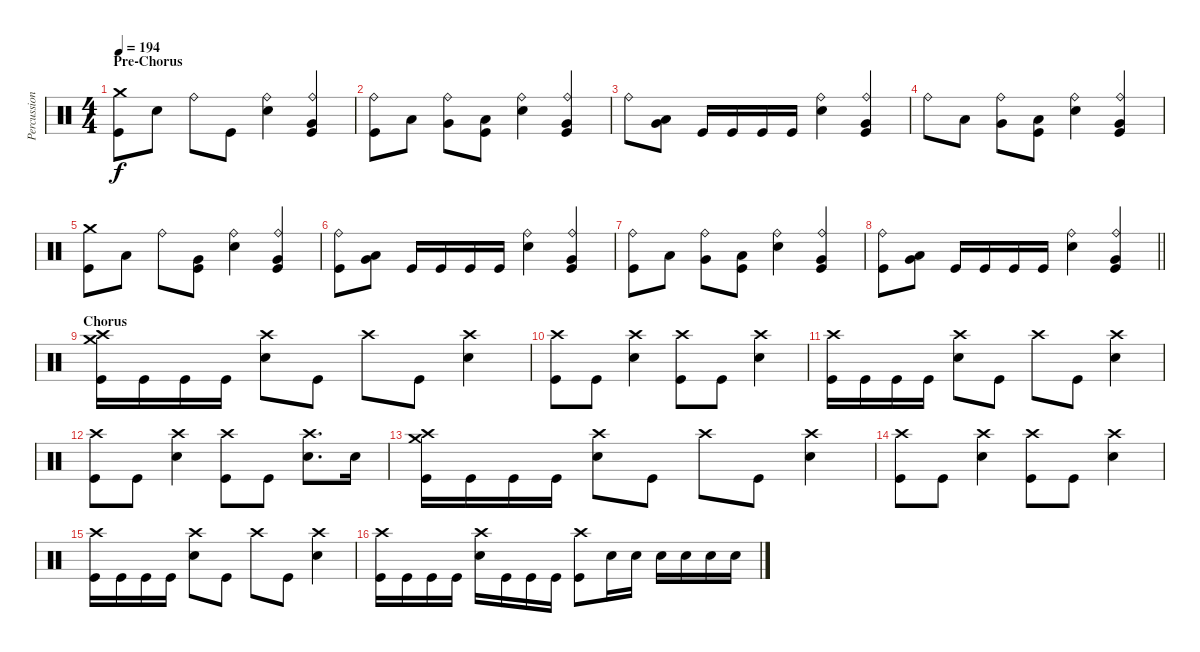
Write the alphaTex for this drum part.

\track ("Percussion" "Percussion") {instrument percussion}
\staff {score}
\articulation defaults
\ts (4 4)
\section ("" "Pre-Chorus")
\tempo 194
\clef neutral
\ks c
("Crash medium (hit)" "Kick (hit)").8{dy f} "Electric Snare (hit)".8 "Ride (bell)".8 "Kick (hit)".8 ("Ride (bell)" "Electric Snare (hit)").4 ("Ride (bell)" "Very Low Tom (hit)" "Kick (hit)").4 |
("Ride (bell)" "Kick (hit)").8 "Low Tom (hit)".8 ("Ride (bell)" "Very Low Tom (hit)").8 ("Low Floor Tom (hit)" "Kick (hit)").8 ("Ride (bell)" "Electric Snare (hit)").4 ("Ride (bell)" "Very Low Tom (hit)" "Kick (hit)").4 |
"Ride (bell)".8 ("Low Tom (hit)" "Very Low Tom (hit)").8 "Kick (hit)".16 "Kick (hit)".16 "Kick (hit)".16 "Kick (hit)".16 ("Ride (bell)" "Electric Snare (hit)").4 ("Ride (bell)" "Very Low Tom (hit)" "Kick (hit)").4 |
"Ride (bell)".8 "Low Tom (hit)".8 ("Ride (bell)" "Very Low Tom (hit)").8 ("Low Floor Tom (hit)" "Kick (hit)").8 ("Ride (bell)" "Electric Snare (hit)").4 ("Ride (bell)" "Very Low Tom (hit)" "Kick (hit)").4 |
("Crash medium (hit)" "Kick (hit)").8 "Low Tom (hit)".8 "Ride (bell)".8 ("Very Low Tom (hit)" "Kick (hit)").8 ("Ride (bell)" "Electric Snare (hit)").4 ("Ride (bell)" "Very Low Tom (hit)" "Kick (hit)").4 |
("Ride (bell)" "Kick (hit)").8 ("Low Tom (hit)" "Very Low Tom (hit)").8 "Kick (hit)".16 "Kick (hit)".16 "Kick (hit)".16 "Kick (hit)".16 ("Ride (bell)" "Electric Snare (hit)").4 ("Ride (bell)" "Very Low Tom (hit)" "Kick (hit)").4 |
("Ride (bell)" "Kick (hit)").8 "Low Tom (hit)".8 ("Ride (bell)" "Very Low Tom (hit)").8 ("Low Floor Tom (hit)" "Kick (hit)").8 ("Ride (bell)" "Electric Snare (hit)").4 ("Ride (bell)" "Very Low Tom (hit)" "Kick (hit)").4 |
\barLineRight lightlight
("Ride (bell)" "Kick (hit)").8 ("Low Tom (hit)" "Very Low Tom (hit)").8 "Kick (hit)".16 "Kick (hit)".16 "Kick (hit)".16 "Kick (hit)".16 ("Ride (bell)" "Electric Snare (hit)").4 ("Ride (bell)" "Very Low Tom (hit)" "Kick (hit)").4 |
\section ("" "Chorus")
("Crash high (hit)" "Crash medium (hit)" "Kick (hit)").16 "Kick (hit)".16 "Kick (hit)".16 "Kick (hit)".16 ("Crash high (hit)" "Electric Snare (hit)").8 "Kick (hit)".8 "Crash high (hit)".8 "Kick (hit)".8 ("Crash high (hit)" "Electric Snare (hit)").4 |
("Crash high (hit)" "Kick (hit)").8 "Kick (hit)".8 ("Crash high (hit)" "Electric Snare (hit)").4 ("Crash high (hit)" "Kick (hit)").8 "Kick (hit)".8 ("Crash high (hit)" "Electric Snare (hit)").4 |
("Crash high (hit)" "Kick (hit)").16 "Kick (hit)".16 "Kick (hit)".16 "Kick (hit)".16 ("Crash high (hit)" "Electric Snare (hit)").8 "Kick (hit)".8 "Crash high (hit)".8 "Kick (hit)".8 ("Crash high (hit)" "Electric Snare (hit)").4 |
("Crash high (hit)" "Kick (hit)").8 "Kick (hit)".8 ("Crash high (hit)" "Electric Snare (hit)").4 ("Crash high (hit)" "Kick (hit)").8 "Kick (hit)".8 ("Crash high (hit)" "Electric Snare (hit)").8{d} "Electric Snare (hit)".16 |
("Crash high (hit)" "Crash medium (hit)" "Kick (hit)").16 "Kick (hit)".16 "Kick (hit)".16 "Kick (hit)".16 ("Crash high (hit)" "Electric Snare (hit)").8 "Kick (hit)".8 "Crash high (hit)".8 "Kick (hit)".8 ("Crash high (hit)" "Electric Snare (hit)").4 |
("Crash high (hit)" "Kick (hit)").8 "Kick (hit)".8 ("Crash high (hit)" "Electric Snare (hit)").4 ("Crash high (hit)" "Kick (hit)").8 "Kick (hit)".8 ("Crash high (hit)" "Electric Snare (hit)").4 |
("Crash high (hit)" "Kick (hit)").16 "Kick (hit)".16 "Kick (hit)".16 "Kick (hit)".16 ("Crash high (hit)" "Electric Snare (hit)").8 "Kick (hit)".8 "Crash high (hit)".8 "Kick (hit)".8 ("Crash high (hit)" "Electric Snare (hit)").4 |
("Crash high (hit)" "Kick (hit)").16 "Kick (hit)".16 "Kick (hit)".16 "Kick (hit)".16 ("Crash high (hit)" "Electric Snare (hit)").16 "Kick (hit)".16 "Kick (hit)".16 "Kick (hit)".16 ("Crash high (hit)" "Kick (hit)").8 "Electric Snare (hit)".16 "Electric Snare (hit)".16 "Electric Snare (hit)".16 "Electric Snare (hit)".16 "Electric Snare (hit)".16 "Electric Snare (hit)".16
